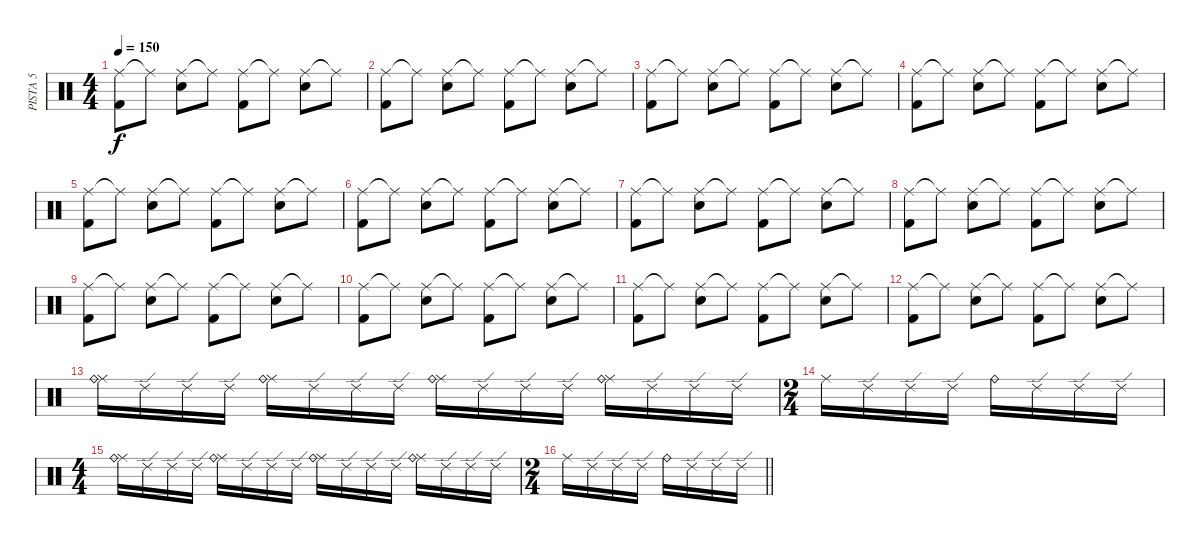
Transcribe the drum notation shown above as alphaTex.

\track ("PISTA 5" "PISTA 5") {instrument percussion}
\staff {score}
\articulation defaults
\ts (4 4)
\tempo 150
\clef neutral
\ks c
("Ride (middle)" "Kick (hit) 2").8{dy f} "Ride (middle)"{t}.8 ("Ride (middle)" "Electric Snare (hit)").8 "Ride (middle)"{t}.8 ("Ride (middle)" "Kick (hit) 2").8 "Ride (middle)"{t}.8 ("Ride (middle)" "Electric Snare (hit)").8 "Ride (middle)"{t}.8 |
("Ride (middle)" "Kick (hit) 2").8 "Ride (middle)"{t}.8 ("Ride (middle)" "Electric Snare (hit)").8 "Ride (middle)"{t}.8 ("Ride (middle)" "Kick (hit) 2").8 "Ride (middle)"{t}.8 ("Ride (middle)" "Electric Snare (hit)").8 "Ride (middle)"{t}.8 |
("Ride (middle)" "Kick (hit) 2").8 "Ride (middle)"{t}.8 ("Ride (middle)" "Electric Snare (hit)").8 "Ride (middle)"{t}.8 ("Ride (middle)" "Kick (hit) 2").8 "Ride (middle)"{t}.8 ("Ride (middle)" "Electric Snare (hit)").8 "Ride (middle)"{t}.8 |
("Ride (middle)" "Kick (hit) 2").8 "Ride (middle)"{t}.8 ("Ride (middle)" "Electric Snare (hit)").8 "Ride (middle)"{t}.8 ("Ride (middle)" "Kick (hit) 2").8 "Ride (middle)"{t}.8 ("Ride (middle)" "Electric Snare (hit)").8 "Ride (middle)"{t}.8 |
("Ride (middle)" "Kick (hit) 2").8 "Ride (middle)"{t}.8 ("Ride (middle)" "Electric Snare (hit)").8 "Ride (middle)"{t}.8 ("Ride (middle)" "Kick (hit) 2").8 "Ride (middle)"{t}.8 ("Ride (middle)" "Electric Snare (hit)").8 "Ride (middle)"{t}.8 |
("Ride (middle)" "Kick (hit) 2").8 "Ride (middle)"{t}.8 ("Ride (middle)" "Electric Snare (hit)").8 "Ride (middle)"{t}.8 ("Ride (middle)" "Kick (hit) 2").8 "Ride (middle)"{t}.8 ("Ride (middle)" "Electric Snare (hit)").8 "Ride (middle)"{t}.8 |
("Ride (middle)" "Kick (hit) 2").8 "Ride (middle)"{t}.8 ("Ride (middle)" "Electric Snare (hit)").8 "Ride (middle)"{t}.8 ("Ride (middle)" "Kick (hit) 2").8 "Ride (middle)"{t}.8 ("Ride (middle)" "Electric Snare (hit)").8 "Ride (middle)"{t}.8 |
("Ride (middle)" "Kick (hit) 2").8 "Ride (middle)"{t}.8 ("Ride (middle)" "Electric Snare (hit)").8 "Ride (middle)"{t}.8 ("Ride (middle)" "Kick (hit) 2").8 "Ride (middle)"{t}.8 ("Ride (middle)" "Electric Snare (hit)").8 "Ride (middle)"{t}.8 |
("Ride (middle)" "Kick (hit) 2").8 "Ride (middle)"{t}.8 ("Ride (middle)" "Electric Snare (hit)").8 "Ride (middle)"{t}.8 ("Ride (middle)" "Kick (hit) 2").8 "Ride (middle)"{t}.8 ("Ride (middle)" "Electric Snare (hit)").8 "Ride (middle)"{t}.8 |
("Ride (middle)" "Kick (hit) 2").8 "Ride (middle)"{t}.8 ("Ride (middle)" "Electric Snare (hit)").8 "Ride (middle)"{t}.8 ("Ride (middle)" "Kick (hit) 2").8 "Ride (middle)"{t}.8 ("Ride (middle)" "Electric Snare (hit)").8 "Ride (middle)"{t}.8 |
("Ride (middle)" "Kick (hit) 2").8 "Ride (middle)"{t}.8 ("Ride (middle)" "Electric Snare (hit)").8 "Ride (middle)"{t}.8 ("Ride (middle)" "Kick (hit) 2").8 "Ride (middle)"{t}.8 ("Ride (middle)" "Electric Snare (hit)").8 "Ride (middle)"{t}.8 |
("Ride (middle)" "Kick (hit) 2").8 "Ride (middle)"{t}.8 ("Ride (middle)" "Electric Snare (hit)").8 "Ride (middle)"{t}.8 ("Ride (middle)" "Kick (hit) 2").8 "Ride (middle)"{t}.8 ("Ride (middle)" "Electric Snare (hit)").8 "Ride (middle)"{t}.8 |
("Ride (middle)" "Ride (bell)").16 "Ride (edge) 2".16 "Ride (edge) 2".16 "Ride (edge) 2".16 ("Ride (middle)" "Ride (bell)").16 "Ride (edge) 2".16 "Ride (edge) 2".16 "Ride (edge) 2".16 ("Ride (middle)" "Ride (bell)").16 "Ride (edge) 2".16 "Ride (edge) 2".16 "Ride (edge) 2".16 ("Ride (middle)" "Ride (bell)").16 "Ride (edge) 2".16 "Ride (edge) 2".16 "Ride (edge) 2".16 |
\ts (2 4)
"Ride (middle)".16 "Ride (edge) 2".16 "Ride (edge) 2".16 "Ride (edge) 2".16 "Ride (bell)".16 "Ride (edge) 2".16 "Ride (edge) 2".16 "Ride (edge) 2".16 |
\ts (4 4)
("Ride (middle)" "Ride (bell)").16 "Ride (edge) 2".16 "Ride (edge) 2".16 "Ride (edge) 2".16 ("Ride (middle)" "Ride (bell)").16 "Ride (edge) 2".16 "Ride (edge) 2".16 "Ride (edge) 2".16 ("Ride (middle)" "Ride (bell)").16 "Ride (edge) 2".16 "Ride (edge) 2".16 "Ride (edge) 2".16 ("Ride (middle)" "Ride (bell)").16 "Ride (edge) 2".16 "Ride (edge) 2".16 "Ride (edge) 2".16 |
\ts (2 4)
\barLineRight lightlight "Ride (middle)".16 "Ride (edge) 2".16 "Ride (edge) 2".16 "Ride (edge) 2".16 "Ride (bell)".16 "Ride (edge) 2".16 "Ride (edge) 2".16 "Ride (edge) 2".16
